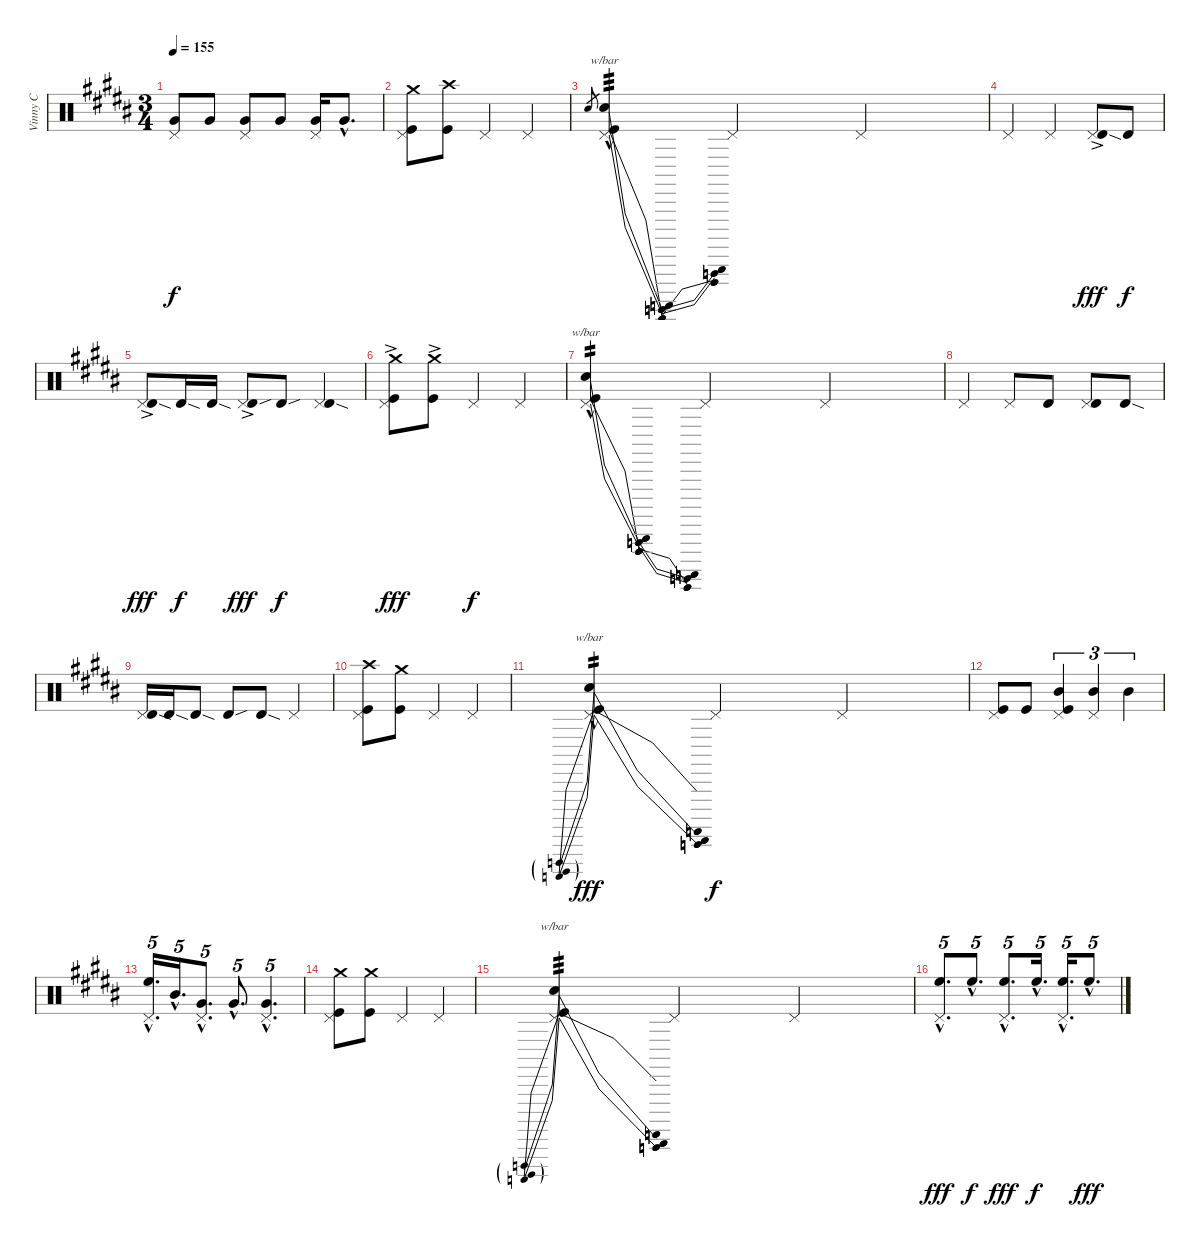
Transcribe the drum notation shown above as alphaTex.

\track ("Vinny C" "Vinny C") {instrument percussion}
\staff {score}
\articulation defaults
\ts (3 4)
\tempo 155
\clef neutral
\ks b
("Pedal Hi-Hat (hit)" "Very Low Tom (hit)").8{dy f} "Very Low Tom (hit)".8 ("Pedal Hi-Hat (hit)" "Very Low Tom (hit)").8 "Very Low Tom (hit)".8 ("Pedal Hi-Hat (hit)" "Very Low Tom (hit)").16 "Very Low Tom (hit)"{hac}.8{d} |
("Pedal Hi-Hat (hit)" "Crash medium (hit)" "Kick (hit)").8 ("Crash high (hit)" "Kick (hit)").8 "Pedal Hi-Hat (hit)".4 "Pedal Hi-Hat (hit)".4 |
"Electric Snare (hit)".8{gr} ("Pedal Hi-Hat (hit)" "Electric Snare (hit)"{hac} "Kick (hit)").4{tbe (dip default 0 8 30 -16 60 12) tp 3} "Pedal Hi-Hat (hit)".4 "Pedal Hi-Hat (hit)".4 |
"Pedal Hi-Hat (hit)".4 "Pedal Hi-Hat (hit)".4 ("Pedal Hi-Hat (hit)" "Timbale high (hit)"{sod ac}).8{dy fff} "Timbale high (hit)".8{dy f} |
("Pedal Hi-Hat (hit)" "Timbale high (hit)"{sod ac}).8{dy fff} "Timbale high (hit)"{sod}.16{dy f} "Timbale high (hit)"{sod}.16 ("Pedal Hi-Hat (hit)" "Timbale high (hit)"{sou ac}).8{dy fff} "Timbale high (hit)"{sou}.8{dy f} ("Pedal Hi-Hat (hit)" "Timbale high (hit)"{sod}).4 |
("Pedal Hi-Hat (hit)" "Crash medium (hit)" "Kick (hit)"{ac}).8{dy fff} ("Crash medium (hit)" "Kick (hit)"{ac}).8 "Pedal Hi-Hat (hit)".4{dy f} "Pedal Hi-Hat (hit)".4 |
("Pedal Hi-Hat (hit)" "Electric Snare (hit)"{hac} "Kick (hit)").4{tbe (dip default 0 -8 30 12 60 -16) tp 2} "Pedal Hi-Hat (hit)".4 "Pedal Hi-Hat (hit)".4 |
"Pedal Hi-Hat (hit)".4 "Pedal Hi-Hat (hit)".8 "Timbale high (hit)".8 ("Pedal Hi-Hat (hit)" "Timbale high (hit)").8 "Timbale high (hit)"{sod}.8 |
("Pedal Hi-Hat (hit)" "Timbale high (hit)"{sod}).16 "Timbale high (hit)"{sod}.16 "Timbale high (hit)"{sod}.8 "Timbale high (hit)"{sou}.8 "Timbale high (hit)"{sod}.8 "Pedal Hi-Hat (hit)".4 |
("Pedal Hi-Hat (hit)" "Crash high (hit)" "Kick (hit)").8 ("Crash medium (hit)" "Kick (hit)").8 "Pedal Hi-Hat (hit)".4 "Pedal Hi-Hat (hit)".4 |
("Pedal Hi-Hat (hit)" "Electric Snare (hit)"{hac} "Kick (hit)").4{tbe (predivedive default 0 -24 60 24) tp 2 dy fff} "Pedal Hi-Hat (hit)".4{dy f} "Pedal Hi-Hat (hit)".4 |
("Pedal Hi-Hat (hit)" "Kick (hit)").8 "Kick (hit)".8 ("Pedal Hi-Hat (hit)" "Mid Tom (hit)" "Kick (hit)").4{tu (3 2)} ("Pedal Hi-Hat (hit)" "Mid Tom (hit)").4{tu (3 2)} "Mid Tom (hit)".4{tu (3 2)} |
("Pedal Hi-Hat (hit)" "High Floor Tom (hit)"{hac}).16{d tu (5 4)} "Mid Tom (hit)"{hac}.16{d tu (5 4)} ("Pedal Hi-Hat (hit)" "Very Low Tom (hit)"{hac}).8{d tu (5 4)} "Very Low Tom (hit)"{hac}.8{d tu (5 4)} ("Pedal Hi-Hat (hit)" "Very Low Tom (hit)"{hac}).4{d tu (5 4)} |
("Pedal Hi-Hat (hit)" "Crash medium (hit)" "Kick (hit)").8 ("Crash medium (hit)" "Kick (hit)").8 "Pedal Hi-Hat (hit)".4 "Pedal Hi-Hat (hit)".4 |
("Pedal Hi-Hat (hit)" "Electric Snare (hit)" "Kick (hit)").4{tbe (predivedive default 0 -18 60 24) tp 3} "Pedal Hi-Hat (hit)".4 "Pedal Hi-Hat (hit)".4 |
("Pedal Hi-Hat (hit)" "High Floor Tom (hit)"{hac}).8{d tu (5 4) dy fff} "High Floor Tom (hit)"{hac}.8{d tu (5 4) dy f} ("Pedal Hi-Hat (hit)" "High Floor Tom (hit)"{hac}).8{d tu (5 4) dy fff} "High Floor Tom (hit)"{hac}.16{d tu (5 4) dy f} ("Pedal Hi-Hat (hit)" "High Floor Tom (hit)"{hac}).16{d tu (5 4)} "High Floor Tom (hit)"{hac}.8{d tu (5 4) dy fff}
